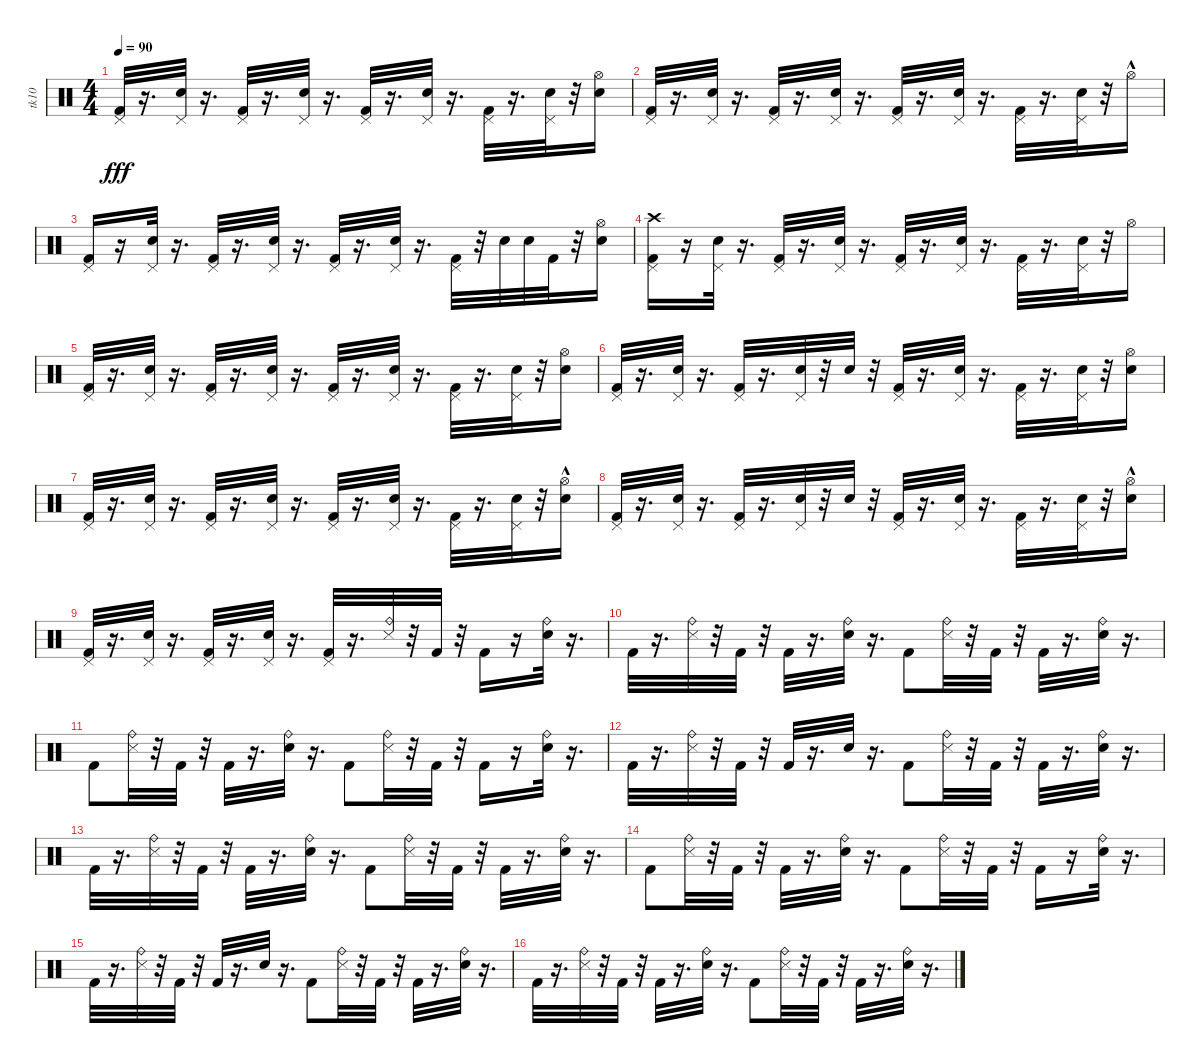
\track ("tk10" "tk10") {instrument percussion}
\staff {score}
\articulation defaults
\ts (4 4)
\tempo 90
\clef neutral
\ks c
("Kick (hit) 2" "Pedal Hi-Hat (hit)").32{dy fff} r.16{d} ("Electric Snare (hit)" "Pedal Hi-Hat (hit)").32 r.16{d} ("Pedal Hi-Hat (hit)" "Kick (hit) 2").32 r.16{d} ("Pedal Hi-Hat (hit)" "Electric Snare (hit)").32 r.16{d} ("Pedal Hi-Hat (hit)" "Kick (hit) 2").32 r.16{d} ("Pedal Hi-Hat (hit)" "Electric Snare (hit)").32 r.16{d} ("Kick (hit) 2" "Pedal Hi-Hat (hit)").32 r.16{d} ("Electric Snare (hit)" "Pedal Hi-Hat (hit)").32 r.32 ("Hi-Hat (open)" "Electric Snare (hit)").16 |
("Kick (hit) 2" "Pedal Hi-Hat (hit)").32 r.16{d} ("Electric Snare (hit)" "Pedal Hi-Hat (hit)").32 r.16{d} ("Kick (hit) 2" "Pedal Hi-Hat (hit)").32 r.16{d} ("Pedal Hi-Hat (hit)" "Electric Snare (hit)").32 r.16{d} ("Kick (hit) 2" "Pedal Hi-Hat (hit)").32 r.16{d} ("Electric Snare (hit)" "Pedal Hi-Hat (hit)").32 r.16{d} ("Kick (hit) 2" "Pedal Hi-Hat (hit)").32 r.16{d} ("Electric Snare (hit)" "Pedal Hi-Hat (hit)").32 r.32 "Hi-Hat (open)"{hac}.16 |
("Kick (hit) 2" "Pedal Hi-Hat (hit)").16 r.16 ("Pedal Hi-Hat (hit)" "Electric Snare (hit)").32 r.16{d} ("Pedal Hi-Hat (hit)" "Kick (hit) 2").32 r.16{d} ("Pedal Hi-Hat (hit)" "Electric Snare (hit)").32 r.16{d} ("Pedal Hi-Hat (hit)" "Kick (hit) 2").32 r.16{d} ("Pedal Hi-Hat (hit)" "Electric Snare (hit)").32 r.16{d} ("Kick (hit) 2" "Pedal Hi-Hat (hit)").32 r.32 "Electric Snare (hit)".32 "Electric Snare (hit)".32 "Kick (hit) 2".32 r.32 ("Hi-Hat (open)" "Electric Snare (hit)").16 |
("Crash high (hit)" "Pedal Hi-Hat (hit)" "Kick (hit) 2").16 r.16 ("Pedal Hi-Hat (hit)" "Electric Snare (hit)").32 r.16{d} ("Kick (hit) 2" "Pedal Hi-Hat (hit)").32 r.16{d} ("Electric Snare (hit)" "Pedal Hi-Hat (hit)").32 r.16{d} ("Kick (hit) 2" "Pedal Hi-Hat (hit)").32 r.16{d} ("Pedal Hi-Hat (hit)" "Electric Snare (hit)").32 r.16{d} ("Pedal Hi-Hat (hit)" "Kick (hit) 2").32 r.16{d} ("Electric Snare (hit)" "Pedal Hi-Hat (hit)").32 r.32 "Hi-Hat (open)".16 |
("Kick (hit) 2" "Pedal Hi-Hat (hit)").32 r.16{d} ("Electric Snare (hit)" "Pedal Hi-Hat (hit)").32 r.16{d} ("Pedal Hi-Hat (hit)" "Kick (hit) 2").32 r.16{d} ("Pedal Hi-Hat (hit)" "Electric Snare (hit)").32 r.16{d} ("Pedal Hi-Hat (hit)" "Kick (hit) 2").32 r.16{d} ("Pedal Hi-Hat (hit)" "Electric Snare (hit)").32 r.16{d} ("Pedal Hi-Hat (hit)" "Kick (hit) 2").32 r.16{d} ("Electric Snare (hit)" "Pedal Hi-Hat (hit)").32 r.32 ("Electric Snare (hit)" "Hi-Hat (open)").16 |
("Kick (hit) 2" "Pedal Hi-Hat (hit)").32 r.16{d} ("Electric Snare (hit)" "Pedal Hi-Hat (hit)").32 r.16{d} ("Pedal Hi-Hat (hit)" "Kick (hit) 2").32 r.16{d} ("Pedal Hi-Hat (hit)" "Electric Snare (hit)").32 r.32 "Electric Snare (hit)".32 r.32 ("Pedal Hi-Hat (hit)" "Kick (hit) 2").32 r.16{d} ("Electric Snare (hit)" "Pedal Hi-Hat (hit)").32 r.16{d} ("Pedal Hi-Hat (hit)" "Kick (hit) 2").32 r.16{d} ("Electric Snare (hit)" "Pedal Hi-Hat (hit)").32 r.32 ("Electric Snare (hit)" "Hi-Hat (open)").16 |
("Kick (hit) 2" "Pedal Hi-Hat (hit)").32 r.16{d} ("Electric Snare (hit)" "Pedal Hi-Hat (hit)").32 r.16{d} ("Kick (hit) 2" "Pedal Hi-Hat (hit)").32 r.16{d} ("Electric Snare (hit)" "Pedal Hi-Hat (hit)").32 r.16{d} ("Pedal Hi-Hat (hit)" "Kick (hit) 2").32 r.16{d} ("Electric Snare (hit)" "Pedal Hi-Hat (hit)").32 r.16{d} ("Pedal Hi-Hat (hit)" "Kick (hit) 2").32 r.16{d} ("Electric Snare (hit)" "Pedal Hi-Hat (hit)").32 r.32 ("Electric Snare (hit)" "Hi-Hat (open)"{hac}).16 |
("Kick (hit) 2" "Pedal Hi-Hat (hit)").32 r.16{d} ("Electric Snare (hit)" "Pedal Hi-Hat (hit)").32 r.16{d} ("Pedal Hi-Hat (hit)" "Kick (hit) 2").32 r.16{d} ("Pedal Hi-Hat (hit)" "Electric Snare (hit)").32 r.32 "Electric Snare (hit)".32 r.32 ("Pedal Hi-Hat (hit)" "Kick (hit) 2").32 r.16{d} ("Pedal Hi-Hat (hit)" "Electric Snare (hit)").32 r.16{d} ("Pedal Hi-Hat (hit)" "Kick (hit) 2").32 r.16{d} ("Electric Snare (hit)" "Pedal Hi-Hat (hit)").32 r.32 ("Electric Snare (hit)" "Hi-Hat (open)"{hac}).16 |
("Kick (hit) 2" "Pedal Hi-Hat (hit)").32 r.16{d} ("Electric Snare (hit)" "Pedal Hi-Hat (hit)").32 r.16{d} ("Kick (hit) 2" "Pedal Hi-Hat (hit)").32 r.16{d} ("Electric Snare (hit)" "Pedal Hi-Hat (hit)").32 r.16{d} ("Pedal Hi-Hat (hit)" "Kick (hit) 2").32 r.16{d} ("Snare (side stick) 3" "Ride (bell)").32 r.32 "Kick (hit) 2".32 r.32 "Kick (hit) 2".16 r.16 ("Ride (bell)" "Electric Snare (hit)").32 r.16{d} |
"Kick (hit) 2".32 r.16{d} ("Ride (bell)" "Snare (side stick) 3").32 r.32 "Kick (hit) 2".32 r.32 "Kick (hit) 2".32 r.16{d} ("Electric Snare (hit)" "Ride (bell)").32 r.16{d} "Kick (hit) 2".8 ("Ride (bell)" "Snare (side stick) 3").32 r.32 "Kick (hit) 2".32 r.32 "Kick (hit) 2".32 r.16{d} ("Ride (bell)" "Electric Snare (hit)").32 r.16{d} |
"Kick (hit) 2".8 ("Ride (bell)" "Snare (side stick) 3").32 r.32 "Kick (hit) 2".32 r.32 "Kick (hit) 2".32 r.16{d} ("Ride (bell)" "Electric Snare (hit)").32 r.16{d} "Kick (hit) 2".8 ("Ride (bell)" "Snare (side stick) 3").32 r.32 "Kick (hit) 2".32 r.32 "Kick (hit) 2".16 r.16 ("Ride (bell)" "Electric Snare (hit)").32 r.16{d} |
"Kick (hit) 2".32 r.16{d} ("Ride (bell)" "Snare (side stick) 3").32 r.32 "Kick (hit) 2".32 r.32 "Kick (hit) 2".32 r.16{d} "Electric Snare (hit)".32 r.16{d} "Kick (hit) 2".8 ("Ride (bell)" "Snare (side stick) 3").32 r.32 "Kick (hit) 2".32 r.32 "Kick (hit) 2".32 r.16{d} ("Ride (bell)" "Electric Snare (hit)").32 r.16{d} |
"Kick (hit) 2".32 r.16{d} ("Ride (bell)" "Snare (side stick) 3").32 r.32 "Kick (hit) 2".32 r.32 "Kick (hit) 2".32 r.16{d} ("Electric Snare (hit)" "Ride (bell)").32 r.16{d} "Kick (hit) 2".8 ("Ride (bell)" "Snare (side stick) 3").32 r.32 "Kick (hit) 2".32 r.32 "Kick (hit) 2".32 r.16{d} ("Ride (bell)" "Electric Snare (hit)").32 r.16{d} |
"Kick (hit) 2".8 ("Ride (bell)" "Snare (side stick) 3").32 r.32 "Kick (hit) 2".32 r.32 "Kick (hit) 2".32 r.16{d} ("Ride (bell)" "Electric Snare (hit)").32 r.16{d} "Kick (hit) 2".8 ("Ride (bell)" "Snare (side stick) 3").32 r.32 "Kick (hit) 2".32 r.32 "Kick (hit) 2".16 r.16 ("Ride (bell)" "Electric Snare (hit)").32 r.16{d} |
"Kick (hit) 2".32 r.16{d} ("Ride (bell)" "Snare (side stick) 3").32 r.32 "Kick (hit) 2".32 r.32 "Kick (hit) 2".32 r.16{d} "Electric Snare (hit)".32 r.16{d} "Kick (hit) 2".8 ("Ride (bell)" "Snare (side stick) 3").32 r.32 "Kick (hit) 2".32 r.32 "Kick (hit) 2".32 r.16{d} ("Ride (bell)" "Electric Snare (hit)").32 r.16{d} |
"Kick (hit) 2".32 r.16{d} ("Ride (bell)" "Snare (side stick) 3").32 r.32 "Kick (hit) 2".32 r.32 "Kick (hit) 2".32 r.16{d} ("Electric Snare (hit)" "Ride (bell)").32 r.16{d} "Kick (hit) 2".8 ("Ride (bell)" "Snare (side stick) 3").32 r.32 "Kick (hit) 2".32 r.32 "Kick (hit) 2".32 r.16{d} ("Ride (bell)" "Electric Snare (hit)").32 r.16{d}
